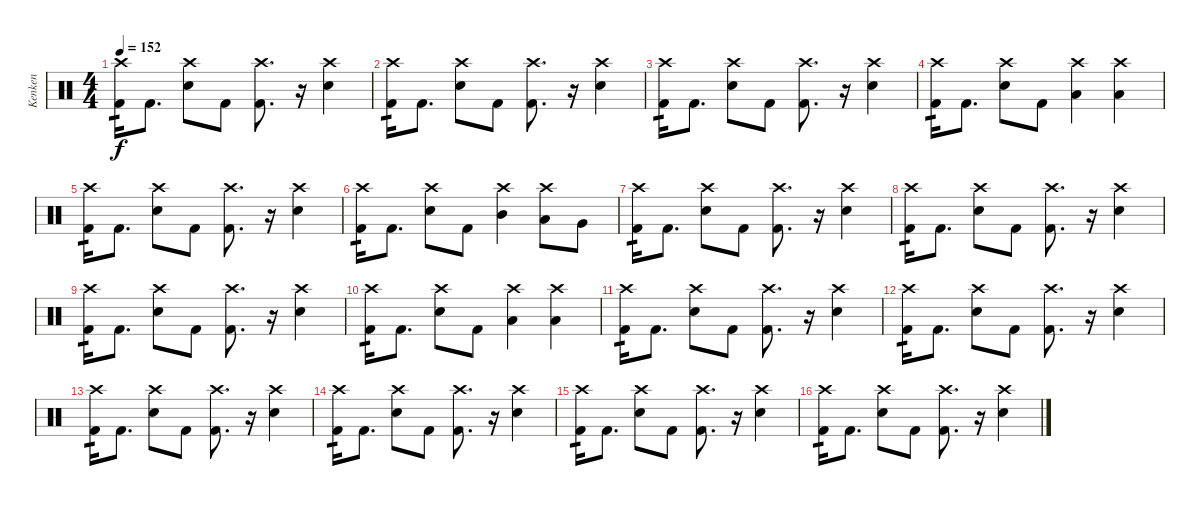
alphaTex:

\track ("Kenken" "Kenken") {instrument percussion}
\staff {score}
\articulation defaults
\ts (4 4)
\tempo 152
\clef neutral
\ks c
("Crash high (hit)" "Kick (hit) 2").16{tp 1 dy f} "Kick (hit) 2".8{d} ("Crash high (hit)" "Electric Snare (hit)").8 "Kick (hit) 2".8 ("Crash high (hit)" "Kick (hit) 2").8{d} r.16 ("Crash high (hit)" "Electric Snare (hit)").4 |
("Crash high (hit)" "Kick (hit) 2").16{tp 1} "Kick (hit) 2".8{d} ("Crash high (hit)" "Electric Snare (hit)").8 "Kick (hit) 2".8 ("Crash high (hit)" "Kick (hit) 2").8{d} r.16 ("Crash high (hit)" "Electric Snare (hit)").4 |
("Crash high (hit)" "Kick (hit) 2").16{tp 1} "Kick (hit) 2".8{d} ("Crash high (hit)" "Electric Snare (hit)").8 "Kick (hit) 2".8 ("Crash high (hit)" "Kick (hit) 2").8{d} r.16 ("Crash high (hit)" "Electric Snare (hit)").4 |
("Crash high (hit)" "Kick (hit) 2").16{tp 1} "Kick (hit) 2".8{d} ("Crash high (hit)" "Electric Snare (hit)").8 "Kick (hit) 2".8 ("Crash high (hit)" "Low Tom (hit)").4 ("Crash high (hit)" "Low Tom (hit)").4 |
("Crash high (hit)" "Kick (hit) 2").16{tp 1} "Kick (hit) 2".8{d} ("Crash high (hit)" "Electric Snare (hit)").8 "Kick (hit) 2".8 ("Crash high (hit)" "Kick (hit) 2").8{d} r.16 ("Crash high (hit)" "Electric Snare (hit)").4 |
("Crash high (hit)" "Kick (hit) 2").16{tp 1} "Kick (hit) 2".8{d} ("Crash high (hit)" "Electric Snare (hit)").8 "Kick (hit) 2".8 ("Crash high (hit)" "Mid Tom (hit)").4 ("Crash high (hit)" "Low Tom (hit)").8 "Very Low Tom (hit)".8 |
("Crash high (hit)" "Kick (hit) 2").16{tp 1} "Kick (hit) 2".8{d} ("Crash high (hit)" "Electric Snare (hit)").8 "Kick (hit) 2".8 ("Crash high (hit)" "Kick (hit) 2").8{d} r.16 ("Crash high (hit)" "Electric Snare (hit)").4 |
("Crash high (hit)" "Kick (hit) 2").16{tp 1} "Kick (hit) 2".8{d} ("Crash high (hit)" "Electric Snare (hit)").8 "Kick (hit) 2".8 ("Crash high (hit)" "Kick (hit) 2").8{d} r.16 ("Crash high (hit)" "Electric Snare (hit)").4 |
("Crash high (hit)" "Kick (hit) 2").16{tp 1} "Kick (hit) 2".8{d} ("Crash high (hit)" "Electric Snare (hit)").8 "Kick (hit) 2".8 ("Crash high (hit)" "Kick (hit) 2").8{d} r.16 ("Crash high (hit)" "Electric Snare (hit)").4 |
("Crash high (hit)" "Kick (hit) 2").16{tp 1} "Kick (hit) 2".8{d} ("Crash high (hit)" "Electric Snare (hit)").8 "Kick (hit) 2".8 ("Crash high (hit)" "Low Tom (hit)").4 ("Crash high (hit)" "Low Tom (hit)").4 |
("Crash high (hit)" "Kick (hit) 2").16{tp 1} "Kick (hit) 2".8{d} ("Crash high (hit)" "Electric Snare (hit)").8 "Kick (hit) 2".8 ("Crash high (hit)" "Kick (hit) 2").8{d} r.16 ("Crash high (hit)" "Electric Snare (hit)").4 |
("Crash high (hit)" "Kick (hit) 2").16{tp 1} "Kick (hit) 2".8{d} ("Crash high (hit)" "Electric Snare (hit)").8 "Kick (hit) 2".8 ("Crash high (hit)" "Kick (hit) 2").8{d} r.16 ("Crash high (hit)" "Electric Snare (hit)").4 |
("Crash high (hit)" "Kick (hit) 2").16{tp 1} "Kick (hit) 2".8{d} ("Crash high (hit)" "Electric Snare (hit)").8 "Kick (hit) 2".8 ("Crash high (hit)" "Kick (hit) 2").8{d} r.16 ("Crash high (hit)" "Electric Snare (hit)").4 |
("Crash high (hit)" "Kick (hit) 2").16{tp 1} "Kick (hit) 2".8{d} ("Crash high (hit)" "Electric Snare (hit)").8 "Kick (hit) 2".8 ("Crash high (hit)" "Kick (hit) 2").8{d} r.16 ("Crash high (hit)" "Electric Snare (hit)").4 |
("Crash high (hit)" "Kick (hit) 2").16{tp 1} "Kick (hit) 2".8{d} ("Crash high (hit)" "Electric Snare (hit)").8 "Kick (hit) 2".8 ("Crash high (hit)" "Kick (hit) 2").8{d} r.16 ("Crash high (hit)" "Electric Snare (hit)").4 |
("Crash high (hit)" "Kick (hit) 2").16{tp 1} "Kick (hit) 2".8{d} ("Crash high (hit)" "Electric Snare (hit)").8 "Kick (hit) 2".8 ("Crash high (hit)" "Kick (hit) 2").8{d} r.16 ("Crash high (hit)" "Electric Snare (hit)").4
